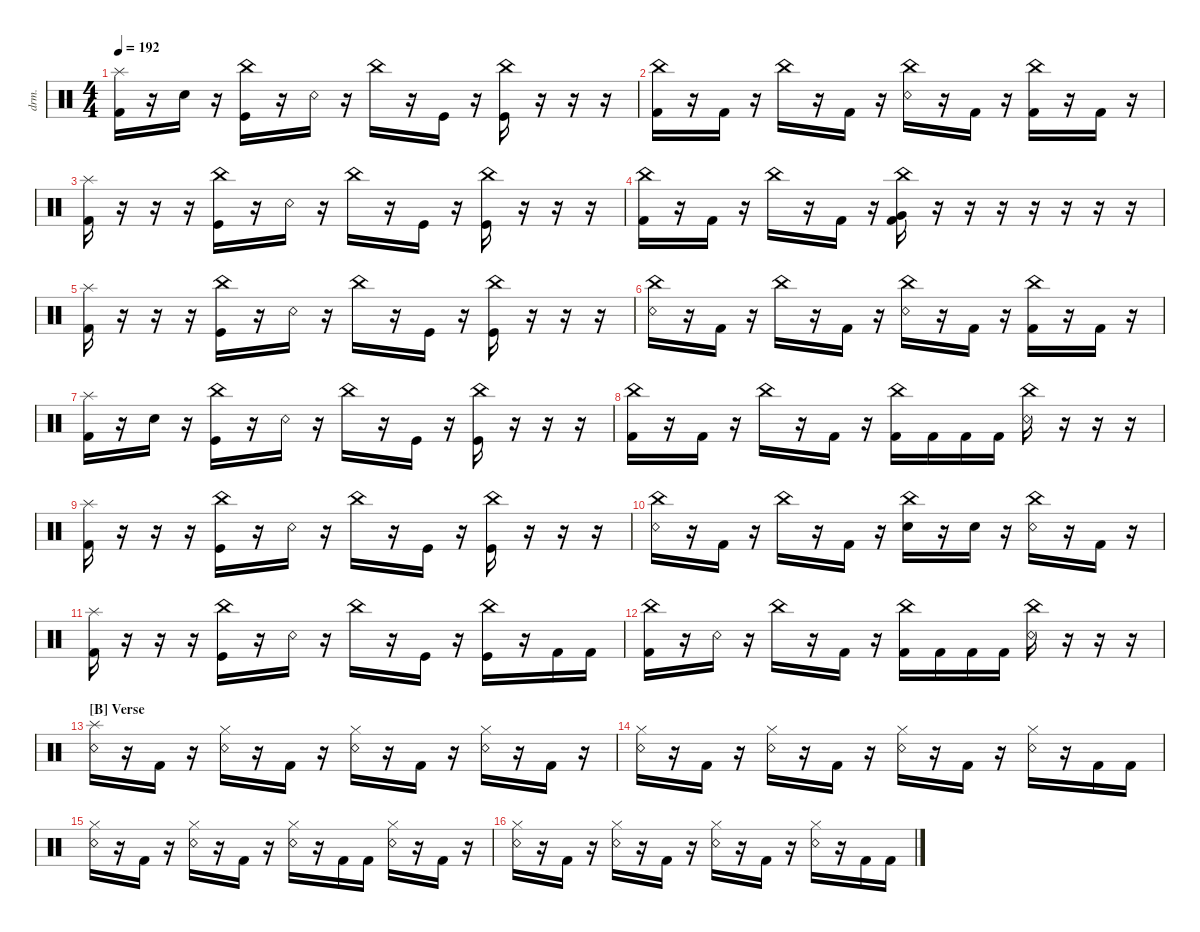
\defaultSystemsLayout 4
\hideDynamics
\bracketExtendMode nobrackets
\otherSystemsTrackNameOrientation horizontal
\track ("Drumkit" "drm.") {instrument percussion}
\staff {score}
\articulation defaults
\ts (4 4)
\tempo 192
\clef neutral
\ks c
("Kick (hit) 2" "Splash (hit)").16{dy ff beam Down} r.16{beam Down} "Snare (hit) 2".16{dy p beam Down} r.16{beam Down} ("China (hit)" "Kick (hit)").16{dy ff beam Down} r.16{beam Down} "Snare (rim shot)".16{beam Down} r.16{beam Down} "China (hit)".16{beam Down} r.16{beam Down} "Kick (hit)".16{beam Down} r.16{beam Down} ("China (hit)" "Kick (hit)").16{beam Down} r.16{beam Down} r.16{beam Down} r.16{beam Down} |
("Kick (hit) 2" "China (hit)").16{beam Down} r.16{beam Down} "Kick (hit) 2".16{beam Down} r.16{beam Down} "China (hit)".16{beam Down} r.16{beam Down} "Kick (hit) 2".16{beam Down} r.16{beam Down} ("Snare (rim shot)" "China (hit)").16{beam Down} r.16{beam Down} "Kick (hit) 2".16{beam Down} r.16{beam Down} ("Kick (hit) 2" "China (hit)").16{beam Down} r.16{beam Down} "Kick (hit) 2".16{beam Down} r.16{beam Down} |
("Kick (hit) 2" "Splash (hit)").16{beam Down} r.16{beam Down} r.16{beam Down} r.16{beam Down} ("China (hit)" "Kick (hit)").16{beam Down} r.16{beam Down} "Snare (rim shot)".16{beam Down} r.16{beam Down} "China (hit)".16{beam Down} r.16{beam Down} "Kick (hit)".16{beam Down} r.16{beam Down} ("China (hit)" "Kick (hit)").16{beam Down} r.16{beam Down} r.16{beam Down} r.16{beam Down} |
("Kick (hit) 2" "China (hit)").16{beam Down} r.16{beam Down} "Kick (hit) 2".16{beam Down} r.16{beam Down} "China (hit)".16{beam Down} r.16{beam Down} "Kick (hit) 2".16{beam Down} r.16{beam Down} ("China (hit)" "Kick (hit) 2" "Very Low Tom (hit)").16{beam Down} r.16{beam Down} r.16{beam Down} r.16{beam Down} r.16{beam Down} r.16{beam Down} r.16{beam Down} r.16{beam Down} |
("Kick (hit) 2" "Splash (hit)").16{beam Down} r.16{beam Down} r.16{beam Down} r.16{beam Down} ("China (hit)" "Kick (hit)").16{beam Down} r.16{beam Down} "Snare (rim shot)".16{beam Down} r.16{beam Down} "China (hit)".16{beam Down} r.16{beam Down} "Kick (hit)".16{beam Down} r.16{beam Down} ("China (hit)" "Kick (hit)").16{beam Down} r.16{beam Down} r.16{beam Down} r.16{beam Down} |
("China (hit)" "Snare (rim shot)").16{beam Down} r.16{beam Down} "Kick (hit) 2".16{beam Down} r.16{beam Down} "China (hit)".16{beam Down} r.16{beam Down} "Kick (hit) 2".16{beam Down} r.16{beam Down} ("Snare (rim shot)" "China (hit)").16{beam Down} r.16{beam Down} "Kick (hit) 2".16{beam Down} r.16{beam Down} ("Kick (hit) 2" "China (hit)").16{beam Down} r.16{beam Down} "Kick (hit) 2".16{beam Down} r.16{beam Down} |
("Kick (hit) 2" "Splash (hit)").16{beam Down} r.16{beam Down} "Snare (hit) 2".16{dy p beam Down} r.16{beam Down} ("China (hit)" "Kick (hit)").16{dy ff beam Down} r.16{beam Down} "Snare (rim shot)".16{beam Down} r.16{beam Down} "China (hit)".16{beam Down} r.16{beam Down} "Kick (hit)".16{beam Down} r.16{beam Down} ("China (hit)" "Kick (hit)").16{beam Down} r.16{beam Down} r.16{beam Down} r.16{beam Down} |
("Kick (hit) 2" "China (hit)").16{beam Down} r.16{beam Down} "Kick (hit) 2".16{beam Down} r.16{beam Down} "China (hit)".16{beam Down} r.16{beam Down} "Kick (hit) 2".16{beam Down} r.16{beam Down} ("China (hit)" "Kick (hit) 2").16{beam Down} "Kick (hit) 2".16{beam Down} "Kick (hit) 2".16{beam Down} "Kick (hit) 2".16{beam Down} ("China (hit)" "Snare (rim shot)").16{beam Down} r.16{beam Down} r.16{beam Down} r.16{beam Down} |
("Kick (hit) 2" "Splash (hit)").16{beam Down} r.16{beam Down} r.16{beam Down} r.16{beam Down} ("China (hit)" "Kick (hit)").16{beam Down} r.16{beam Down} "Snare (rim shot)".16{beam Down} r.16{beam Down} "China (hit)".16{beam Down} r.16{beam Down} "Kick (hit)".16{beam Down} r.16{beam Down} ("China (hit)" "Kick (hit)").16{beam Down} r.16{beam Down} r.16{beam Down} r.16{beam Down} |
("China (hit)" "Snare (rim shot)").16{beam Down} r.16{beam Down} "Kick (hit) 2".16{beam Down} r.16{beam Down} "China (hit)".16{beam Down} r.16{beam Down} "Kick (hit) 2".16{beam Down} r.16{beam Down} ("Snare (hit) 2" "China (hit)").16{dy p beam Down} r.16{beam Down} "Snare (hit) 2".16{beam Down} r.16{beam Down} ("China (hit)" "Snare (rim shot)").16{dy ff beam Down} r.16{beam Down} "Kick (hit) 2".16{beam Down} r.16{beam Down} |
("Kick (hit) 2" "Splash (hit)").16{beam Down} r.16{beam Down} r.16{beam Down} r.16{beam Down} ("China (hit)" "Kick (hit)").16{beam Down} r.16{beam Down} "Snare (rim shot)".16{beam Down} r.16{beam Down} "China (hit)".16{beam Down} r.16{beam Down} "Kick (hit)".16{beam Down} r.16{beam Down} ("China (hit)" "Kick (hit)").16{beam Down} r.16{beam Down} "Kick (hit) 2".16{beam Down} "Kick (hit) 2".16{beam Down} |
("China (hit)" "Kick (hit) 2").16{beam Down} r.16{beam Down} "Snare (rim shot)".16{beam Down} r.16{beam Down} "China (hit)".16{beam Down} r.16{beam Down} "Kick (hit) 2".16{beam Down} r.16{beam Down} ("China (hit)" "Kick (hit) 2").16{beam Down} "Kick (hit) 2".16{beam Down} "Kick (hit) 2".16{beam Down} "Kick (hit) 2".16{beam Down} ("China (hit)" "Snare (rim shot)").16{beam Down} r.16{beam Down} r.16{beam Down} r.16{beam Down} |
\section ("B" "Verse")
("Snare (rim shot)" "Splash (hit)").16{beam Down} r.16{beam Down} "Kick (hit) 2".16{beam Down} r.16{beam Down} ("Snare (rim shot)" "Hi-Hat (closed)").16{beam Down} r.16{beam Down} "Kick (hit) 2".16{beam Down} r.16{beam Down} ("Snare (rim shot)" "Hi-Hat (closed)").16{beam Down} r.16{beam Down} "Kick (hit) 2".16{beam Down} r.16{beam Down} ("Snare (rim shot)" "Hi-Hat (closed)").16{beam Down} r.16{beam Down} "Kick (hit) 2".16{beam Down} r.16{beam Down} |
("Snare (rim shot)" "Hi-Hat (closed)").16{beam Down} r.16{beam Down} "Kick (hit) 2".16{beam Down} r.16{beam Down} ("Snare (rim shot)" "Hi-Hat (closed)").16{beam Down} r.16{beam Down} "Kick (hit) 2".16{beam Down} r.16{beam Down} ("Snare (rim shot)" "Hi-Hat (closed)").16{beam Down} r.16{beam Down} "Kick (hit) 2".16{beam Down} r.16{beam Down} ("Snare (rim shot)" "Hi-Hat (closed)").16{beam Down} r.16{beam Down} "Kick (hit) 2".16{beam Down} "Kick (hit) 2".16{beam Down} |
("Snare (rim shot)" "Hi-Hat (closed)").16{beam Down} r.16{beam Down} "Kick (hit) 2".16{beam Down} r.16{beam Down} ("Snare (rim shot)" "Hi-Hat (closed)").16{beam Down} r.16{beam Down} "Kick (hit) 2".16{beam Down} r.16{beam Down} ("Snare (rim shot)" "Hi-Hat (closed)").16{beam Down} r.16{beam Down} "Kick (hit) 2".16{beam Down} "Kick (hit) 2".16{beam Down} ("Snare (rim shot)" "Hi-Hat (closed)").16{beam Down} r.16{beam Down} "Kick (hit) 2".16{beam Down} r.16{beam Down} |
("Snare (rim shot)" "Hi-Hat (closed)").16{beam Down} r.16{beam Down} "Kick (hit) 2".16{beam Down} r.16{beam Down} ("Snare (rim shot)" "Hi-Hat (closed)").16{beam Down} r.16{beam Down} "Kick (hit) 2".16{beam Down} r.16{beam Down} ("Snare (rim shot)" "Hi-Hat (closed)").16{beam Down} r.16{beam Down} "Kick (hit) 2".16{beam Down} r.16{beam Down} ("Snare (rim shot)" "Hi-Hat (closed)").16{beam Down} r.16{beam Down} "Kick (hit) 2".16{beam Down} "Kick (hit) 2".16{beam Down}
